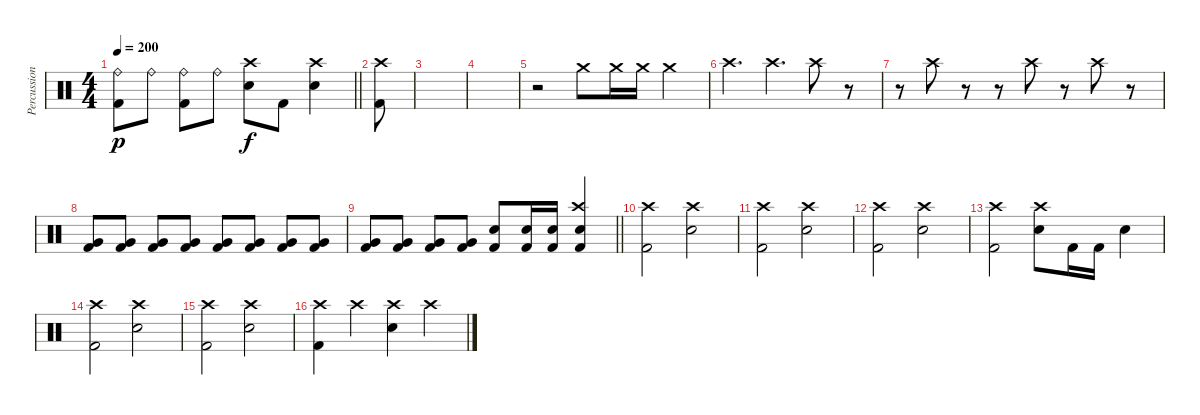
\track ("Percussion" "Percussion") {instrument percussion}
\staff {score}
\articulation defaults
\ts (4 4)
\tempo 200
\clef neutral
\barLineRight lightlight
\ks c
("Ride (bell)" "Kick (hit) 2").8{dy p} "Ride (bell)".8 ("Ride (bell)" "Kick (hit) 2").8 "Ride (bell)".8 ("Crash high (hit)" "Electric Snare (hit)").8{dy f} "Kick (hit) 2".8 ("Crash high (hit)" "Electric Snare (hit)").4 |
("Crash high (hit)" "Kick (hit) 2").8 |
|
|
r.2 "Crash medium (hit)".8 "Crash medium (hit)".16 "Crash medium (hit)".16 "Crash medium (hit)".4 |
"Crash high (hit)".4{d} "Crash high (hit)".4{d} "Crash high (hit)".8 r.8 |
r.8 "Crash high (hit)".8 r.8 r.8 "Crash high (hit)".8 r.8 "Crash high (hit)".8 r.8 |
("Very Low Tom (hit)" "Kick (hit) 2").8 ("Very Low Tom (hit)" "Kick (hit) 2").8 ("Very Low Tom (hit)" "Kick (hit) 2").8 ("Very Low Tom (hit)" "Kick (hit) 2").8 ("Very Low Tom (hit)" "Kick (hit) 2").8 ("Very Low Tom (hit)" "Kick (hit) 2").8 ("Very Low Tom (hit)" "Kick (hit) 2").8 ("Very Low Tom (hit)" "Kick (hit) 2").8 |
\barLineRight lightlight
("Very Low Tom (hit)" "Kick (hit) 2").8 ("Very Low Tom (hit)" "Kick (hit) 2").8 ("Very Low Tom (hit)" "Kick (hit) 2").8 ("Very Low Tom (hit)" "Kick (hit) 2").8 ("Electric Snare (hit)" "Kick (hit) 2").8 ("Electric Snare (hit)" "Kick (hit) 2").16 ("Electric Snare (hit)" "Kick (hit) 2").16 ("Crash high (hit)" "Electric Snare (hit)" "Kick (hit) 2").4 |
("Crash high (hit)" "Kick (hit) 2").2 ("Crash high (hit)" "Electric Snare (hit)").2 |
("Crash high (hit)" "Kick (hit) 2").2 ("Crash high (hit)" "Electric Snare (hit)").2 |
("Crash high (hit)" "Kick (hit) 2").2 ("Crash high (hit)" "Electric Snare (hit)").2 |
("Crash high (hit)" "Kick (hit) 2").2 ("Crash high (hit)" "Electric Snare (hit)").8 "Kick (hit) 2".16 "Kick (hit) 2".16 "Electric Snare (hit)".4 |
("Crash high (hit)" "Kick (hit) 2").2 ("Crash high (hit)" "Electric Snare (hit)").2 |
("Crash high (hit)" "Kick (hit) 2").2 ("Crash high (hit)" "Electric Snare (hit)").2 |
("Crash high (hit)" "Kick (hit) 2").4 "Crash high (hit)".4 ("Crash high (hit)" "Electric Snare (hit)").4 "Crash high (hit)".4
